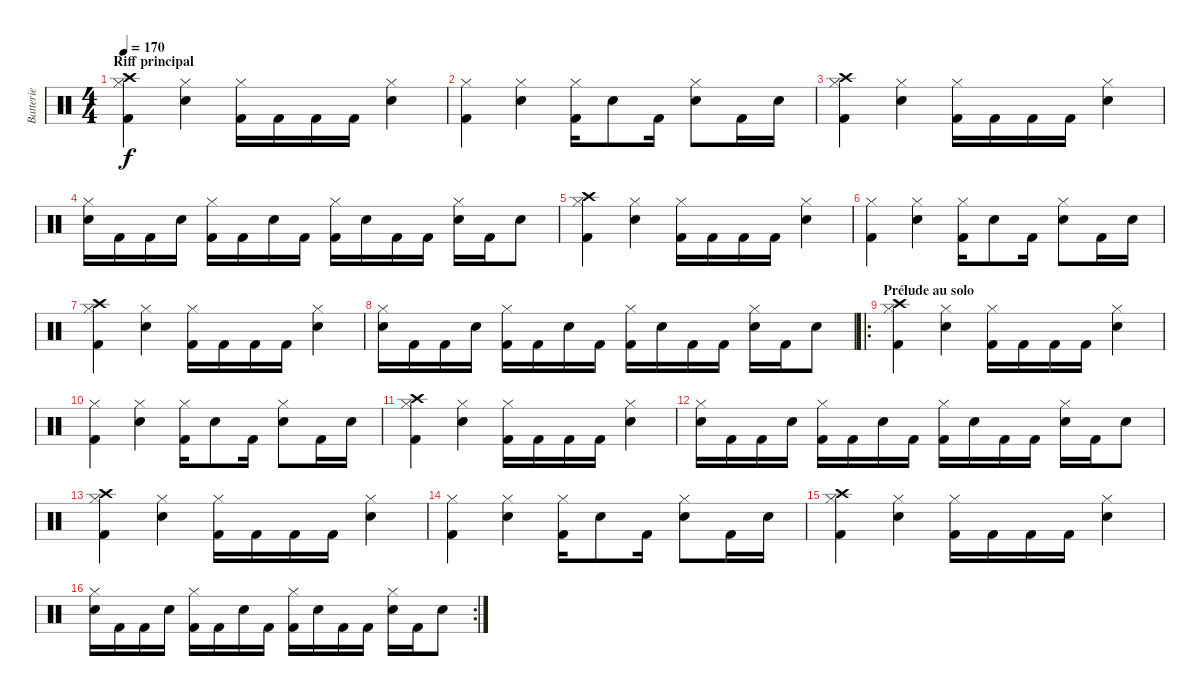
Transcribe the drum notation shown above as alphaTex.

\track ("Batterie" "Batterie") {instrument percussion}
\staff {score}
\articulation defaults
\ts (4 4)
\section ("" "Riff principal")
\tempo 170
\clef neutral
\ks c
("Crash high (hit)" "Hi-Hat (closed)" "Kick (hit) 2").4{dy f} ("Hi-Hat (closed)" "Snare (hit) 2").4 ("Hi-Hat (closed)" "Kick (hit) 2").16 "Kick (hit) 2".16 "Kick (hit) 2".16 "Kick (hit) 2".16 ("Hi-Hat (closed)" "Snare (hit) 2").4 |
("Hi-Hat (closed)" "Kick (hit) 2").4 ("Hi-Hat (closed)" "Snare (hit) 2").4 ("Hi-Hat (closed)" "Kick (hit) 2").16 "Snare (hit) 2".8 "Kick (hit) 2".16 ("Hi-Hat (closed)" "Snare (hit) 2").8 "Kick (hit) 2".16 "Snare (hit) 2".16 |
("Crash high (hit)" "Hi-Hat (closed)" "Kick (hit) 2").4 ("Hi-Hat (closed)" "Snare (hit) 2").4 ("Hi-Hat (closed)" "Kick (hit) 2").16 "Kick (hit) 2".16 "Kick (hit) 2".16 "Kick (hit) 2".16 ("Hi-Hat (closed)" "Snare (hit) 2").4 |
("Hi-Hat (closed)" "Snare (hit) 2").16 "Kick (hit) 2".16 "Kick (hit) 2".16 "Snare (hit) 2".16 ("Hi-Hat (closed)" "Kick (hit) 2").16 "Kick (hit) 2".16 "Snare (hit) 2".16 "Kick (hit) 2".16 ("Hi-Hat (closed)" "Kick (hit) 2").16 "Snare (hit) 2".16 "Kick (hit) 2".16 "Kick (hit) 2".16 ("Hi-Hat (closed)" "Snare (hit) 2").16 "Kick (hit) 2".16 "Snare (hit) 2".8 |
("Crash high (hit)" "Hi-Hat (closed)" "Kick (hit) 2").4 ("Hi-Hat (closed)" "Snare (hit) 2").4 ("Hi-Hat (closed)" "Kick (hit) 2").16 "Kick (hit) 2".16 "Kick (hit) 2".16 "Kick (hit) 2".16 ("Hi-Hat (closed)" "Snare (hit) 2").4 |
("Hi-Hat (closed)" "Kick (hit) 2").4 ("Hi-Hat (closed)" "Snare (hit) 2").4 ("Hi-Hat (closed)" "Kick (hit) 2").16 "Snare (hit) 2".8 "Kick (hit) 2".16 ("Hi-Hat (closed)" "Snare (hit) 2").8 "Kick (hit) 2".16 "Snare (hit) 2".16 |
("Crash high (hit)" "Hi-Hat (closed)" "Kick (hit) 2").4 ("Hi-Hat (closed)" "Snare (hit) 2").4 ("Hi-Hat (closed)" "Kick (hit) 2").16 "Kick (hit) 2".16 "Kick (hit) 2".16 "Kick (hit) 2".16 ("Hi-Hat (closed)" "Snare (hit) 2").4 |
("Hi-Hat (closed)" "Snare (hit) 2").16 "Kick (hit) 2".16 "Kick (hit) 2".16 "Snare (hit) 2".16 ("Hi-Hat (closed)" "Kick (hit) 2").16 "Kick (hit) 2".16 "Snare (hit) 2".16 "Kick (hit) 2".16 ("Hi-Hat (closed)" "Kick (hit) 2").16 "Snare (hit) 2".16 "Kick (hit) 2".16 "Kick (hit) 2".16 ("Hi-Hat (closed)" "Snare (hit) 2").16 "Kick (hit) 2".16 "Snare (hit) 2".8 |
\ro
\section ("" "Prélude au solo")
("Crash high (hit)" "Hi-Hat (closed)" "Kick (hit) 2").4 ("Hi-Hat (closed)" "Snare (hit) 2").4 ("Hi-Hat (closed)" "Kick (hit) 2").16 "Kick (hit) 2".16 "Kick (hit) 2".16 "Kick (hit) 2".16 ("Hi-Hat (closed)" "Snare (hit) 2").4 |
("Hi-Hat (closed)" "Kick (hit) 2").4 ("Hi-Hat (closed)" "Snare (hit) 2").4 ("Hi-Hat (closed)" "Kick (hit) 2").16 "Snare (hit) 2".8 "Kick (hit) 2".16 ("Hi-Hat (closed)" "Snare (hit) 2").8 "Kick (hit) 2".16 "Snare (hit) 2".16 |
("Crash high (hit)" "Hi-Hat (closed)" "Kick (hit) 2").4 ("Hi-Hat (closed)" "Snare (hit) 2").4 ("Hi-Hat (closed)" "Kick (hit) 2").16 "Kick (hit) 2".16 "Kick (hit) 2".16 "Kick (hit) 2".16 ("Hi-Hat (closed)" "Snare (hit) 2").4 |
("Hi-Hat (closed)" "Snare (hit) 2").16 "Kick (hit) 2".16 "Kick (hit) 2".16 "Snare (hit) 2".16 ("Hi-Hat (closed)" "Kick (hit) 2").16 "Kick (hit) 2".16 "Snare (hit) 2".16 "Kick (hit) 2".16 ("Hi-Hat (closed)" "Kick (hit) 2").16 "Snare (hit) 2".16 "Kick (hit) 2".16 "Kick (hit) 2".16 ("Hi-Hat (closed)" "Snare (hit) 2").16 "Kick (hit) 2".16 "Snare (hit) 2".8 |
("Crash high (hit)" "Hi-Hat (closed)" "Kick (hit) 2").4 ("Hi-Hat (closed)" "Snare (hit) 2").4 ("Hi-Hat (closed)" "Kick (hit) 2").16 "Kick (hit) 2".16 "Kick (hit) 2".16 "Kick (hit) 2".16 ("Hi-Hat (closed)" "Snare (hit) 2").4 |
("Hi-Hat (closed)" "Kick (hit) 2").4 ("Hi-Hat (closed)" "Snare (hit) 2").4 ("Hi-Hat (closed)" "Kick (hit) 2").16 "Snare (hit) 2".8 "Kick (hit) 2".16 ("Hi-Hat (closed)" "Snare (hit) 2").8 "Kick (hit) 2".16 "Snare (hit) 2".16 |
("Crash high (hit)" "Hi-Hat (closed)" "Kick (hit) 2").4 ("Hi-Hat (closed)" "Snare (hit) 2").4 ("Hi-Hat (closed)" "Kick (hit) 2").16 "Kick (hit) 2".16 "Kick (hit) 2".16 "Kick (hit) 2".16 ("Hi-Hat (closed)" "Snare (hit) 2").4 |
\rc 2
("Hi-Hat (closed)" "Snare (hit) 2").16 "Kick (hit) 2".16 "Kick (hit) 2".16 "Snare (hit) 2".16 ("Hi-Hat (closed)" "Kick (hit) 2").16 "Kick (hit) 2".16 "Snare (hit) 2".16 "Kick (hit) 2".16 ("Hi-Hat (closed)" "Kick (hit) 2").16 "Snare (hit) 2".16 "Kick (hit) 2".16 "Kick (hit) 2".16 ("Hi-Hat (closed)" "Snare (hit) 2").16 "Kick (hit) 2".16 "Snare (hit) 2".8
